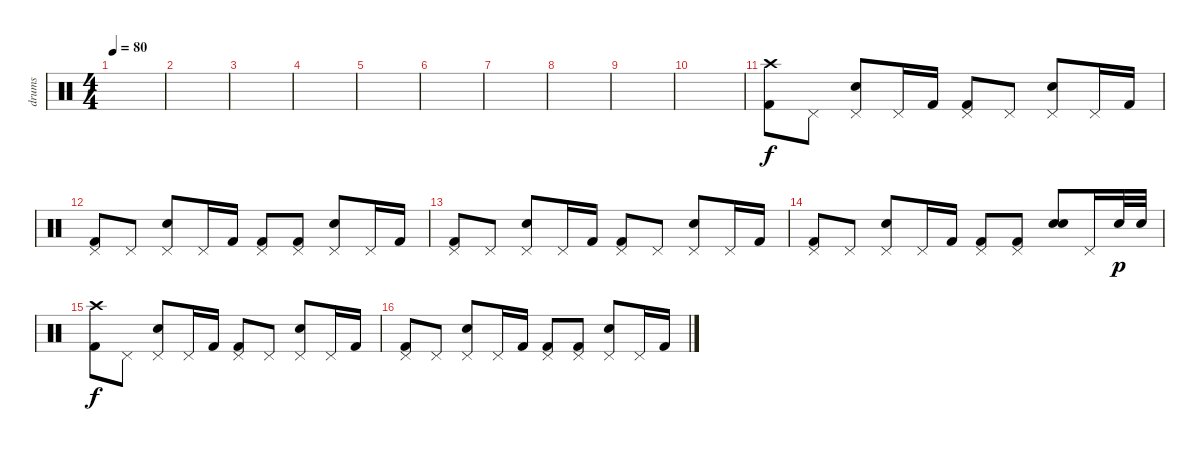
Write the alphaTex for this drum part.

\track ("drums" "drums") {instrument percussion}
\staff {score}
\articulation defaults
\ts (4 4)
\tempo 80
\clef neutral
\ks c
|
|
|
|
|
|
|
|
|
|
("Crash high (hit)" "Kick (hit) 2").8 "Pedal Hi-Hat (hit)".8 ("Pedal Hi-Hat (hit)" "Electric Snare (hit)").8 "Pedal Hi-Hat (hit)".16 "Kick (hit) 2".16 ("Pedal Hi-Hat (hit)" "Kick (hit) 2").8 "Pedal Hi-Hat (hit)".8 ("Pedal Hi-Hat (hit)" "Electric Snare (hit)").8 "Pedal Hi-Hat (hit)".16 "Kick (hit) 2".16 |
("Pedal Hi-Hat (hit)" "Kick (hit) 2").8 "Pedal Hi-Hat (hit)".8 ("Pedal Hi-Hat (hit)" "Electric Snare (hit)").8 "Pedal Hi-Hat (hit)".16 "Kick (hit) 2".16 ("Pedal Hi-Hat (hit)" "Kick (hit) 2").8 ("Pedal Hi-Hat (hit)" "Kick (hit) 2").8 ("Pedal Hi-Hat (hit)" "Electric Snare (hit)").8 "Pedal Hi-Hat (hit)".16 "Kick (hit) 2".16 |
("Pedal Hi-Hat (hit)" "Kick (hit) 2").8 "Pedal Hi-Hat (hit)".8 ("Pedal Hi-Hat (hit)" "Electric Snare (hit)").8 "Pedal Hi-Hat (hit)".16 "Kick (hit) 2".16 ("Pedal Hi-Hat (hit)" "Kick (hit) 2").8 "Pedal Hi-Hat (hit)".8 ("Pedal Hi-Hat (hit)" "Electric Snare (hit)").8 "Pedal Hi-Hat (hit)".16 "Kick (hit) 2".16 |
("Pedal Hi-Hat (hit)" "Kick (hit) 2").8 "Pedal Hi-Hat (hit)".8 ("Pedal Hi-Hat (hit)" "Electric Snare (hit)").8 "Pedal Hi-Hat (hit)".16 "Kick (hit) 2".16 ("Pedal Hi-Hat (hit)" "Kick (hit) 2").8 ("Pedal Hi-Hat (hit)" "Kick (hit) 2").8 ("Electric Snare (hit)" "Electric Snare (hit)").8 "Pedal Hi-Hat (hit)".16 "Electric Snare (hit)".32{dy p} "Electric Snare (hit)".32 |
("Crash high (hit)" "Kick (hit) 2").8{dy f} "Pedal Hi-Hat (hit)".8 ("Pedal Hi-Hat (hit)" "Electric Snare (hit)").8 "Pedal Hi-Hat (hit)".16 "Kick (hit) 2".16 ("Pedal Hi-Hat (hit)" "Kick (hit) 2").8 "Pedal Hi-Hat (hit)".8 ("Pedal Hi-Hat (hit)" "Electric Snare (hit)").8 "Pedal Hi-Hat (hit)".16 "Kick (hit) 2".16 |
("Pedal Hi-Hat (hit)" "Kick (hit) 2").8 "Pedal Hi-Hat (hit)".8 ("Pedal Hi-Hat (hit)" "Electric Snare (hit)").8 "Pedal Hi-Hat (hit)".16 "Kick (hit) 2".16 ("Pedal Hi-Hat (hit)" "Kick (hit) 2").8 ("Pedal Hi-Hat (hit)" "Kick (hit) 2").8 ("Pedal Hi-Hat (hit)" "Electric Snare (hit)").8 "Pedal Hi-Hat (hit)".16 "Kick (hit) 2".16
